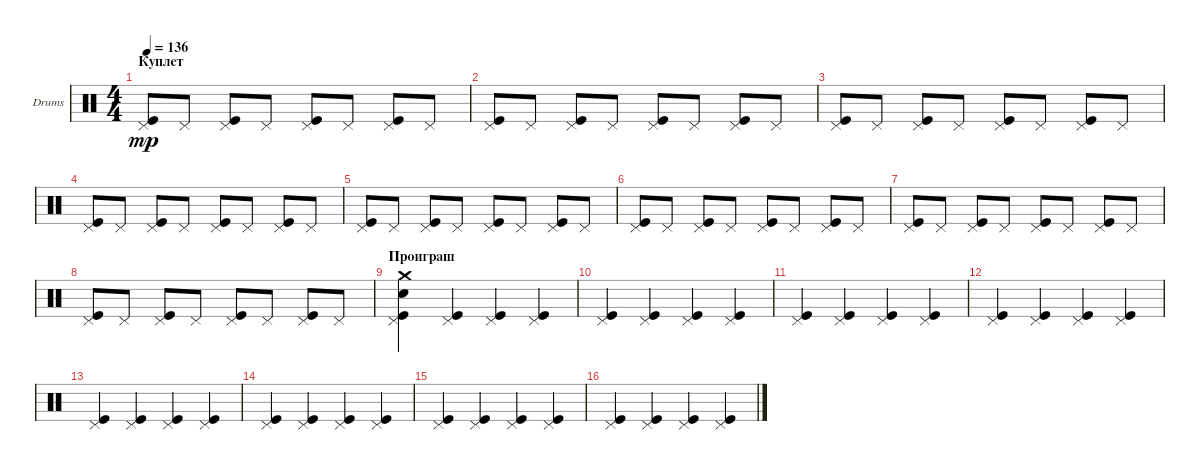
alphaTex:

\defaultSystemsLayout 4
\bracketExtendMode groupsimilarinstruments
\firstSystemTrackNameOrientation horizontal
\otherSystemsTrackNameOrientation horizontal
\track ("Е. Кулаков" "Drums") {instrument percussion}
\staff {score}
\articulation defaults
\ts (4 4)
\section ("" "Куплет")
\tempo 136
\clef neutral
\ks c
("Pedal Hi-Hat (hit)" "Kick (hit)").8{dy mp} "Pedal Hi-Hat (hit)".8 ("Pedal Hi-Hat (hit)" "Kick (hit)").8 "Pedal Hi-Hat (hit)".8 ("Pedal Hi-Hat (hit)" "Kick (hit)").8 "Pedal Hi-Hat (hit)".8 ("Pedal Hi-Hat (hit)" "Kick (hit)").8 "Pedal Hi-Hat (hit)".8 |
("Pedal Hi-Hat (hit)" "Kick (hit)").8 "Pedal Hi-Hat (hit)".8 ("Pedal Hi-Hat (hit)" "Kick (hit)").8 "Pedal Hi-Hat (hit)".8 ("Pedal Hi-Hat (hit)" "Kick (hit)").8 "Pedal Hi-Hat (hit)".8 ("Pedal Hi-Hat (hit)" "Kick (hit)").8 "Pedal Hi-Hat (hit)".8 |
("Pedal Hi-Hat (hit)" "Kick (hit)").8 "Pedal Hi-Hat (hit)".8 ("Pedal Hi-Hat (hit)" "Kick (hit)").8 "Pedal Hi-Hat (hit)".8 ("Pedal Hi-Hat (hit)" "Kick (hit)").8 "Pedal Hi-Hat (hit)".8 ("Pedal Hi-Hat (hit)" "Kick (hit)").8 "Pedal Hi-Hat (hit)".8 |
("Pedal Hi-Hat (hit)" "Kick (hit)").8 "Pedal Hi-Hat (hit)".8 ("Pedal Hi-Hat (hit)" "Kick (hit)").8 "Pedal Hi-Hat (hit)".8 ("Pedal Hi-Hat (hit)" "Kick (hit)").8 "Pedal Hi-Hat (hit)".8 ("Pedal Hi-Hat (hit)" "Kick (hit)").8 "Pedal Hi-Hat (hit)".8 |
("Pedal Hi-Hat (hit)" "Kick (hit)").8 "Pedal Hi-Hat (hit)".8 ("Pedal Hi-Hat (hit)" "Kick (hit)").8 "Pedal Hi-Hat (hit)".8 ("Pedal Hi-Hat (hit)" "Kick (hit)").8 "Pedal Hi-Hat (hit)".8 ("Pedal Hi-Hat (hit)" "Kick (hit)").8 "Pedal Hi-Hat (hit)".8 |
("Pedal Hi-Hat (hit)" "Kick (hit)").8 "Pedal Hi-Hat (hit)".8 ("Pedal Hi-Hat (hit)" "Kick (hit)").8 "Pedal Hi-Hat (hit)".8 ("Pedal Hi-Hat (hit)" "Kick (hit)").8 "Pedal Hi-Hat (hit)".8 ("Pedal Hi-Hat (hit)" "Kick (hit)").8 "Pedal Hi-Hat (hit)".8 |
("Pedal Hi-Hat (hit)" "Kick (hit)").8 "Pedal Hi-Hat (hit)".8 ("Pedal Hi-Hat (hit)" "Kick (hit)").8 "Pedal Hi-Hat (hit)".8 ("Pedal Hi-Hat (hit)" "Kick (hit)").8 "Pedal Hi-Hat (hit)".8 ("Pedal Hi-Hat (hit)" "Kick (hit)").8 "Pedal Hi-Hat (hit)".8 |
("Pedal Hi-Hat (hit)" "Kick (hit)").8 "Pedal Hi-Hat (hit)".8 ("Pedal Hi-Hat (hit)" "Kick (hit)").8 "Pedal Hi-Hat (hit)".8 ("Pedal Hi-Hat (hit)" "Kick (hit)").8 "Pedal Hi-Hat (hit)".8 ("Pedal Hi-Hat (hit)" "Kick (hit)").8 "Pedal Hi-Hat (hit)".8 |
\section ("" "Проиграш")
("Kick (hit)" "Snare (hit) 2" "Pedal Hi-Hat (hit)" "Crash medium (hit)").4 ("Kick (hit)" "Pedal Hi-Hat (hit)").4 ("Kick (hit)" "Pedal Hi-Hat (hit)").4 ("Kick (hit)" "Pedal Hi-Hat (hit)").4 |
("Kick (hit)" "Pedal Hi-Hat (hit)").4 ("Kick (hit)" "Pedal Hi-Hat (hit)").4 ("Kick (hit)" "Pedal Hi-Hat (hit)").4 ("Kick (hit)" "Pedal Hi-Hat (hit)").4 |
("Kick (hit)" "Pedal Hi-Hat (hit)").4 ("Kick (hit)" "Pedal Hi-Hat (hit)").4 ("Kick (hit)" "Pedal Hi-Hat (hit)").4 ("Kick (hit)" "Pedal Hi-Hat (hit)").4 |
("Kick (hit)" "Pedal Hi-Hat (hit)").4 ("Kick (hit)" "Pedal Hi-Hat (hit)").4 ("Kick (hit)" "Pedal Hi-Hat (hit)").4 ("Kick (hit)" "Pedal Hi-Hat (hit)").4 |
("Kick (hit)" "Pedal Hi-Hat (hit)").4 ("Kick (hit)" "Pedal Hi-Hat (hit)").4 ("Kick (hit)" "Pedal Hi-Hat (hit)").4 ("Kick (hit)" "Pedal Hi-Hat (hit)").4 |
("Kick (hit)" "Pedal Hi-Hat (hit)").4 ("Kick (hit)" "Pedal Hi-Hat (hit)").4 ("Kick (hit)" "Pedal Hi-Hat (hit)").4 ("Kick (hit)" "Pedal Hi-Hat (hit)").4 |
("Kick (hit)" "Pedal Hi-Hat (hit)").4 ("Kick (hit)" "Pedal Hi-Hat (hit)").4 ("Kick (hit)" "Pedal Hi-Hat (hit)").4 ("Kick (hit)" "Pedal Hi-Hat (hit)").4 |
("Kick (hit)" "Pedal Hi-Hat (hit)").4 ("Kick (hit)" "Pedal Hi-Hat (hit)").4 ("Kick (hit)" "Pedal Hi-Hat (hit)").4 ("Kick (hit)" "Pedal Hi-Hat (hit)").4
